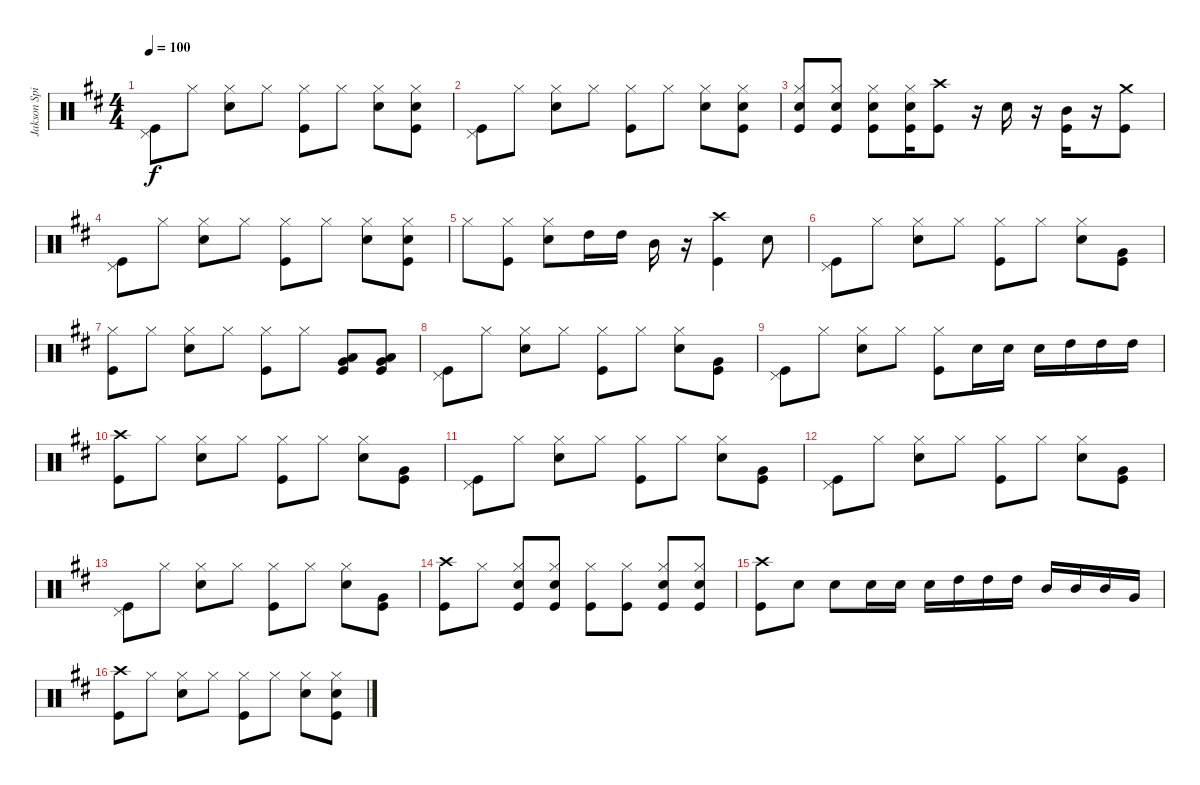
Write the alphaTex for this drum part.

\track ("Jakson Spires Drums" "Jakson Spi") {instrument percussion}
\staff {score}
\articulation defaults
\ts (4 4)
\tempo 100
\clef neutral
\ks d
("Pedal Hi-Hat (hit)" "Kick (hit)").8{dy f} "Hi-Hat (closed)".8 ("Hi-Hat (closed)" "Snare (hit) 2").8 "Hi-Hat (closed)".8 ("Hi-Hat (closed)" "Kick (hit)").8 "Hi-Hat (closed)".8 ("Hi-Hat (closed)" "Snare (hit) 2").8 ("Hi-Hat (closed)" "Snare (hit) 2" "Kick (hit)").8 |
("Pedal Hi-Hat (hit)" "Kick (hit)").8 "Hi-Hat (closed)".8 ("Hi-Hat (closed)" "Snare (hit) 2").8 "Hi-Hat (closed)".8 ("Hi-Hat (closed)" "Kick (hit)").8 "Hi-Hat (closed)".8 ("Hi-Hat (closed)" "Snare (hit) 2").8 ("Hi-Hat (closed)" "Snare (hit) 2" "Kick (hit)").8 |
("Hi-Hat (closed)" "Snare (hit) 2" "Kick (hit)").8 ("Hi-Hat (closed)" "Snare (hit) 2" "Kick (hit)").8 ("Hi-Hat (closed)" "Snare (hit) 2" "Kick (hit)").8 ("Hi-Hat (closed)" "Snare (hit) 2" "Kick (hit)").16 ("Crash high (hit)" "Kick (hit)").8 r.16 "Snare (hit) 2".16 r.16 ("Mid Tom (hit)" "Kick (hit)").16 r.16 ("Crash medium (hit)" "Kick (hit)").8 |
("Pedal Hi-Hat (hit)" "Kick (hit)").8 "Hi-Hat (closed)".8 ("Hi-Hat (closed)" "Snare (hit) 2").8 "Hi-Hat (closed)".8 ("Hi-Hat (closed)" "Kick (hit)").8 "Hi-Hat (closed)".8 ("Hi-Hat (closed)" "Snare (hit) 2").8 ("Hi-Hat (closed)" "Snare (hit) 2" "Kick (hit)").8 |
"Hi-Hat (closed)".8 ("Hi-Hat (closed)" "Kick (hit)").8 ("Hi-Hat (closed)" "Snare (hit) 2").8 "High Tom (hit)".16 "High Tom (hit)".16 "Mid Tom (hit)".16 r.16 ("Crash high (hit)" "Kick (hit)").4 "Snare (hit) 2".8 |
("Pedal Hi-Hat (hit)" "Kick (hit)").8 "Hi-Hat (closed)".8 ("Hi-Hat (closed)" "Snare (hit) 2").8 "Hi-Hat (closed)".8 ("Hi-Hat (closed)" "Kick (hit)").8 "Hi-Hat (closed)".8 ("Hi-Hat (closed)" "Snare (hit) 2").8 ("Very Low Tom (hit)" "Kick (hit)").8 |
("Hi-Hat (closed)" "Kick (hit)").8 "Hi-Hat (closed)".8 ("Hi-Hat (closed)" "Snare (hit) 2").8 "Hi-Hat (closed)".8 ("Hi-Hat (closed)" "Kick (hit)").8 "Hi-Hat (closed)".8 ("Very Low Tom (hit)" "Low Tom (hit)" "Kick (hit)").8 ("Very Low Tom (hit)" "Low Tom (hit)" "Kick (hit)").8 |
("Pedal Hi-Hat (hit)" "Kick (hit)").8 "Hi-Hat (closed)".8 ("Hi-Hat (closed)" "Snare (hit) 2").8 "Hi-Hat (closed)".8 ("Hi-Hat (closed)" "Kick (hit)").8 "Hi-Hat (closed)".8 ("Hi-Hat (closed)" "Snare (hit) 2").8 ("Very Low Tom (hit)" "Kick (hit)").8 |
("Pedal Hi-Hat (hit)" "Kick (hit)").8 "Hi-Hat (closed)".8 ("Hi-Hat (closed)" "Snare (hit) 2").8 "Hi-Hat (closed)".8 ("Hi-Hat (closed)" "Kick (hit)").8 "Snare (hit) 2".16 "Snare (hit) 2".16 "Snare (hit) 2".16 "High Tom (hit)".16 "High Tom (hit)".16 "High Tom (hit)".16 |
("Crash high (hit)" "Kick (hit)").8 "Hi-Hat (closed)".8 ("Hi-Hat (closed)" "Snare (hit) 2").8 "Hi-Hat (closed)".8 ("Hi-Hat (closed)" "Kick (hit)").8 "Hi-Hat (closed)".8 ("Hi-Hat (closed)" "Snare (hit) 2").8 ("Very Low Tom (hit)" "Kick (hit)").8 |
("Pedal Hi-Hat (hit)" "Kick (hit)").8 "Hi-Hat (closed)".8 ("Hi-Hat (closed)" "Snare (hit) 2").8 "Hi-Hat (closed)".8 ("Hi-Hat (closed)" "Kick (hit)").8 "Hi-Hat (closed)".8 ("Hi-Hat (closed)" "Snare (hit) 2").8 ("Very Low Tom (hit)" "Kick (hit)").8 |
("Pedal Hi-Hat (hit)" "Kick (hit)").8 "Hi-Hat (closed)".8 ("Hi-Hat (closed)" "Snare (hit) 2").8 "Hi-Hat (closed)".8 ("Hi-Hat (closed)" "Kick (hit)").8 "Hi-Hat (closed)".8 ("Hi-Hat (closed)" "Snare (hit) 2").8 ("Very Low Tom (hit)" "Kick (hit)").8 |
("Pedal Hi-Hat (hit)" "Kick (hit)").8 "Hi-Hat (closed)".8 ("Hi-Hat (closed)" "Snare (hit) 2").8 "Hi-Hat (closed)".8 ("Hi-Hat (closed)" "Kick (hit)").8 "Hi-Hat (closed)".8 ("Hi-Hat (closed)" "Snare (hit) 2").8 ("Very Low Tom (hit)" "Kick (hit)").8 |
("Crash high (hit)" "Kick (hit)").8 "Hi-Hat (closed)".8 ("Hi-Hat (closed)" "Snare (hit) 2" "Kick (hit)").8 ("Hi-Hat (closed)" "Snare (hit) 2" "Kick (hit)").8 ("Hi-Hat (closed)" "Kick (hit)").8 ("Hi-Hat (closed)" "Kick (hit)").8 ("Hi-Hat (closed)" "Snare (hit) 2" "Kick (hit)").8 ("Hi-Hat (closed)" "Snare (hit) 2" "Kick (hit)").8 |
("Crash high (hit)" "Kick (hit)").8 "Snare (hit) 2".8 "Snare (hit) 2".8 "Snare (hit) 2".16 "Snare (hit) 2".16 "Snare (hit) 2".16 "High Tom (hit)".16 "High Tom (hit)".16 "High Tom (hit)".16 "Mid Tom (hit)".16 "Mid Tom (hit)".16 "Mid Tom (hit)".16 "Very Low Tom (hit)".16 |
("Crash high (hit)" "Kick (hit)").8 "Hi-Hat (closed)".8 ("Hi-Hat (closed)" "Snare (hit) 2").8 "Hi-Hat (closed)".8 ("Hi-Hat (closed)" "Kick (hit)").8 "Hi-Hat (closed)".8 ("Hi-Hat (closed)" "Snare (hit) 2").8 ("Hi-Hat (closed)" "Snare (hit) 2" "Kick (hit)").8
